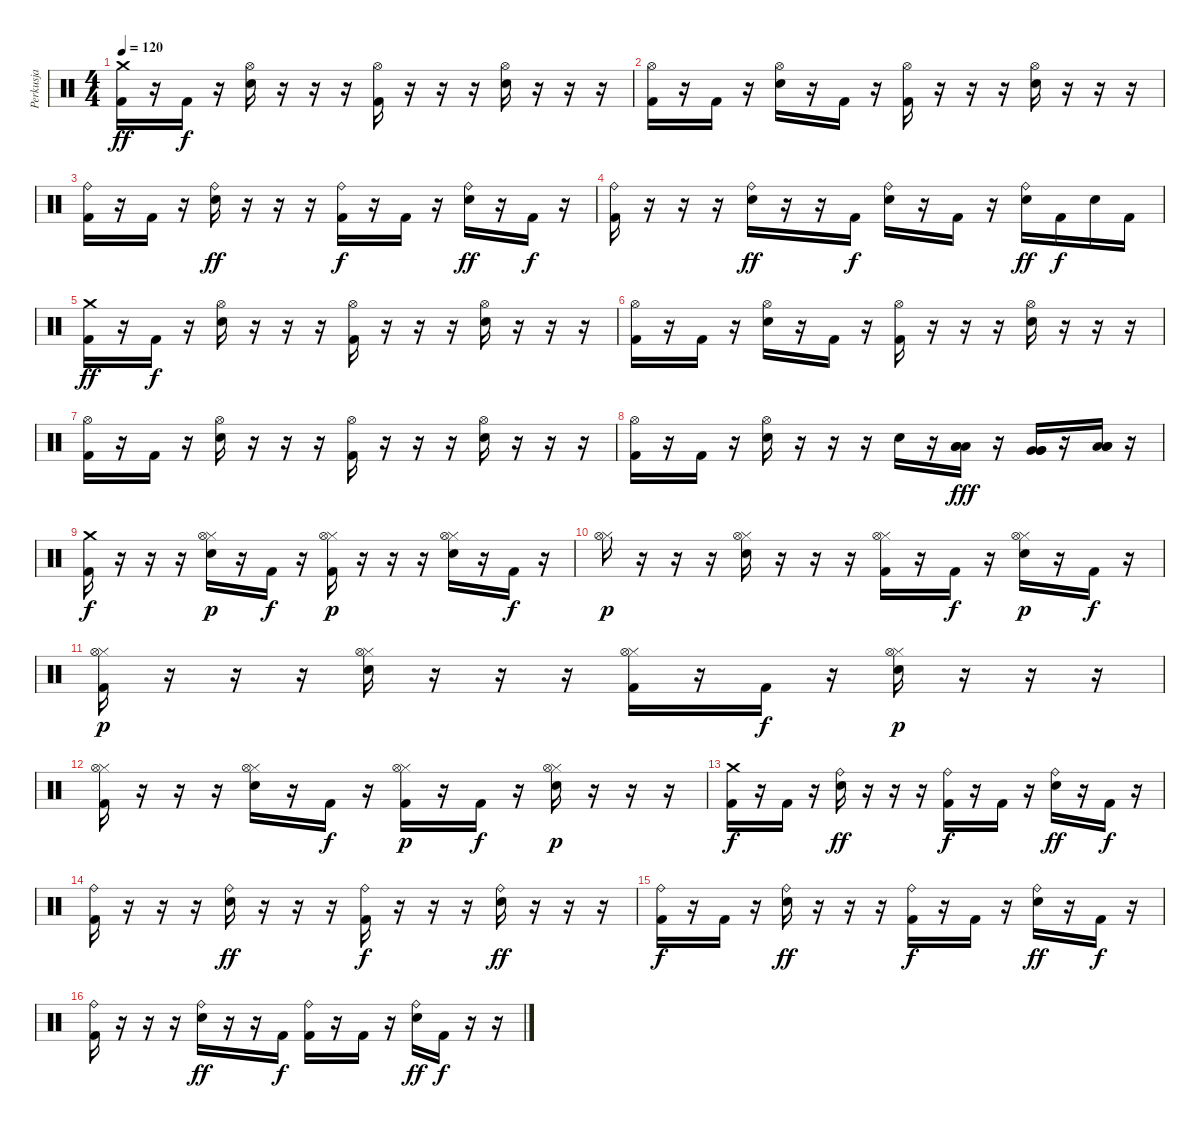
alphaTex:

\track ("Perkusja" "Perkusja") {instrument percussion}
\staff {score}
\articulation defaults
\ts (4 4)
\tempo 120
\clef neutral
\ks c
("Kick (hit) 2" "Crash medium (hit)").16{dy ff} r.16 "Kick (hit) 2".16{dy f} r.16 ("Electric Snare (hit)" "Hi-Hat (open)").16 r.16 r.16 r.16 ("Kick (hit) 2" "Hi-Hat (open)").16 r.16 r.16 r.16 ("Electric Snare (hit)" "Hi-Hat (open)").16 r.16 r.16 r.16 |
("Kick (hit) 2" "Hi-Hat (open)").16 r.16 "Kick (hit) 2".16 r.16 ("Electric Snare (hit)" "Hi-Hat (open)").16 r.16 "Kick (hit) 2".16 r.16 ("Kick (hit) 2" "Hi-Hat (open)").16 r.16 r.16 r.16 ("Electric Snare (hit)" "Hi-Hat (open)").16 r.16 r.16 r.16 |
("Kick (hit) 2" "Ride (bell)").16 r.16 "Kick (hit) 2".16 r.16 ("Electric Snare (hit)" "Ride (bell)").16{dy ff} r.16 r.16 r.16 ("Kick (hit) 2" "Ride (bell)").16{dy f} r.16 "Kick (hit) 2".16 r.16 ("Electric Snare (hit)" "Ride (bell)").16{dy ff} r.16 "Kick (hit) 2".16{dy f} r.16 |
("Kick (hit) 2" "Ride (bell)").16 r.16 r.16 r.16 ("Electric Snare (hit)" "Ride (bell)").16{dy ff} r.16 r.16 "Kick (hit) 2".16{dy f} ("Electric Snare (hit)" "Ride (bell)").16 r.16 "Kick (hit) 2".16 r.16 ("Electric Snare (hit)" "Ride (bell)").16{dy ff} "Kick (hit) 2".16{dy f} "Electric Snare (hit)".16 "Kick (hit) 2".16 |
("Kick (hit) 2" "Crash medium (hit)").16{dy ff} r.16 "Kick (hit) 2".16{dy f} r.16 ("Electric Snare (hit)" "Hi-Hat (open)").16 r.16 r.16 r.16 ("Kick (hit) 2" "Hi-Hat (open)").16 r.16 r.16 r.16 ("Electric Snare (hit)" "Hi-Hat (open)").16 r.16 r.16 r.16 |
("Kick (hit) 2" "Hi-Hat (open)").16 r.16 "Kick (hit) 2".16 r.16 ("Electric Snare (hit)" "Hi-Hat (open)").16 r.16 "Kick (hit) 2".16 r.16 ("Kick (hit) 2" "Hi-Hat (open)").16 r.16 r.16 r.16 ("Electric Snare (hit)" "Hi-Hat (open)").16 r.16 r.16 r.16 |
("Kick (hit) 2" "Hi-Hat (open)").16 r.16 "Kick (hit) 2".16 r.16 ("Electric Snare (hit)" "Hi-Hat (open)").16 r.16 r.16 r.16 ("Kick (hit) 2" "Hi-Hat (open)").16 r.16 r.16 r.16 ("Electric Snare (hit)" "Hi-Hat (open)").16 r.16 r.16 r.16 |
("Kick (hit) 2" "Hi-Hat (open)").16 r.16 "Kick (hit) 2".16 r.16 ("Electric Snare (hit)" "Hi-Hat (open)").16 r.16 r.16 r.16 "Electric Snare (hit)".16 r.16 ("Low Tom (hit)" "Low Tom (hit)" "Low Tom (hit)").16{dy fff} r.16 ("Very Low Tom (hit)" "Very Low Tom (hit)" "Very Low Tom (hit)").16 r.16 ("Low Floor Tom (hit)" "Low Floor Tom (hit)" "Low Floor Tom (hit)").16 r.16 |
("Kick (hit) 2" "Crash medium (hit)").16{dy f} r.16 r.16 r.16 ("Electric Snare (hit)" "Hi-Hat (closed)" "Hi-Hat (open)").16{dy p} r.16 "Kick (hit) 2".16{dy f} r.16 ("Kick (hit) 2" "Hi-Hat (closed)" "Hi-Hat (open)").16{dy p} r.16 r.16 r.16 ("Electric Snare (hit)" "Hi-Hat (closed)" "Hi-Hat (open)").16 r.16 "Kick (hit) 2".16{dy f} r.16 |
("Hi-Hat (closed)" "Hi-Hat (open)").16{dy p} r.16 r.16 r.16 ("Electric Snare (hit)" "Hi-Hat (closed)" "Hi-Hat (open)").16 r.16 r.16 r.16 ("Kick (hit) 2" "Hi-Hat (closed)" "Hi-Hat (open)").16 r.16 "Kick (hit) 2".16{dy f} r.16 ("Electric Snare (hit)" "Hi-Hat (closed)" "Hi-Hat (open)").16{dy p} r.16 "Kick (hit) 2".16{dy f} r.16 |
("Kick (hit) 2" "Hi-Hat (closed)" "Hi-Hat (open)").16{dy p} r.16 r.16 r.16 ("Electric Snare (hit)" "Hi-Hat (closed)" "Hi-Hat (open)").16 r.16 r.16 r.16 ("Kick (hit) 2" "Hi-Hat (closed)" "Hi-Hat (open)").16 r.16 "Kick (hit) 2".16{dy f} r.16 ("Electric Snare (hit)" "Hi-Hat (closed)" "Hi-Hat (open)").16{dy p} r.16 r.16 r.16 |
("Kick (hit) 2" "Hi-Hat (closed)" "Hi-Hat (open)").16 r.16 r.16 r.16 ("Electric Snare (hit)" "Hi-Hat (closed)" "Hi-Hat (open)").16 r.16 "Kick (hit) 2".16{dy f} r.16 ("Kick (hit) 2" "Hi-Hat (closed)" "Hi-Hat (open)").16{dy p} r.16 "Kick (hit) 2".16{dy f} r.16 ("Electric Snare (hit)" "Hi-Hat (closed)" "Hi-Hat (open)").16{dy p} r.16 r.16 r.16 |
("Kick (hit) 2" "Crash medium (hit)").16{dy f} r.16 "Kick (hit) 2".16 r.16 ("Electric Snare (hit)" "Ride (bell)").16{dy ff} r.16 r.16 r.16 ("Kick (hit) 2" "Ride (bell)").16{dy f} r.16 "Kick (hit) 2".16 r.16 ("Electric Snare (hit)" "Ride (bell)").16{dy ff} r.16 "Kick (hit) 2".16{dy f} r.16 |
("Kick (hit) 2" "Ride (bell)").16 r.16 r.16 r.16 ("Electric Snare (hit)" "Ride (bell)").16{dy ff} r.16 r.16 r.16 ("Kick (hit) 2" "Ride (bell)").16{dy f} r.16 r.16 r.16 ("Electric Snare (hit)" "Ride (bell)").16{dy ff} r.16 r.16 r.16 |
("Kick (hit) 2" "Ride (bell)").16{dy f} r.16 "Kick (hit) 2".16 r.16 ("Electric Snare (hit)" "Ride (bell)").16{dy ff} r.16 r.16 r.16 ("Kick (hit) 2" "Ride (bell)").16{dy f} r.16 "Kick (hit) 2".16 r.16 ("Electric Snare (hit)" "Ride (bell)").16{dy ff} r.16 "Kick (hit) 2".16{dy f} r.16 |
("Kick (hit) 2" "Ride (bell)").16 r.16 r.16 r.16 ("Electric Snare (hit)" "Ride (bell)").16{dy ff} r.16 r.16 "Kick (hit) 2".16{dy f} ("Kick (hit) 2" "Ride (bell)").16 r.16 "Kick (hit) 2".16 r.16 ("Electric Snare (hit)" "Ride (bell)").16{dy ff} "Kick (hit) 2".16{dy f} r.16 r.16
